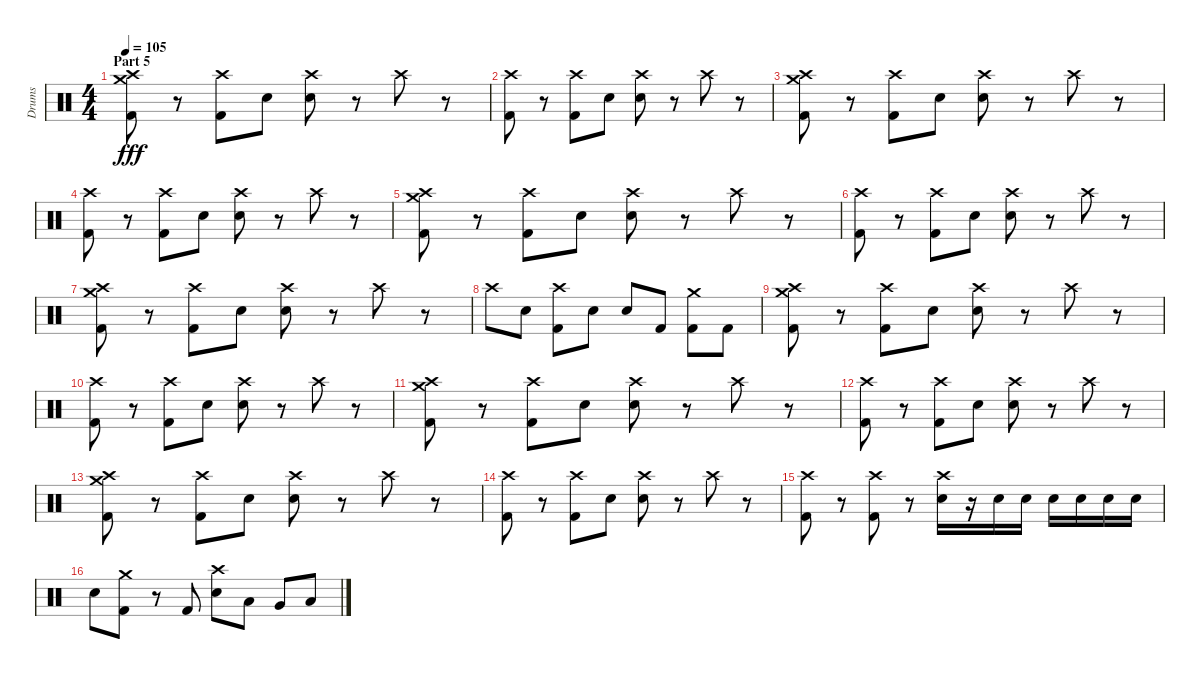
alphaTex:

\track ("Drums" "Drums") {instrument percussion}
\staff {score}
\articulation defaults
\ts (4 4)
\section ("" "Part 5")
\tempo 105
\clef neutral
\ks c
("Crash medium (hit)" "Crash high (hit)" "Kick (hit) 2").8{dy fff} r.8 ("Crash high (hit)" "Kick (hit) 2").8 "Electric Snare (hit)".8 ("Crash high (hit)" "Electric Snare (hit)").8 r.8 "Crash high (hit)".8 r.8 |
("Crash high (hit)" "Kick (hit) 2").8 r.8 ("Crash high (hit)" "Kick (hit) 2").8 "Electric Snare (hit)".8 ("Crash high (hit)" "Electric Snare (hit)").8 r.8 "Crash high (hit)".8 r.8 |
("Crash medium (hit)" "Crash high (hit)" "Kick (hit) 2").8 r.8 ("Crash high (hit)" "Kick (hit) 2").8 "Electric Snare (hit)".8 ("Crash high (hit)" "Electric Snare (hit)").8 r.8 "Crash high (hit)".8 r.8 |
("Crash high (hit)" "Kick (hit) 2").8 r.8 ("Crash high (hit)" "Kick (hit) 2").8 "Electric Snare (hit)".8 ("Crash high (hit)" "Electric Snare (hit)").8 r.8 "Crash high (hit)".8 r.8 |
("Crash medium (hit)" "Crash high (hit)" "Kick (hit) 2").8 r.8 ("Crash high (hit)" "Kick (hit) 2").8 "Electric Snare (hit)".8 ("Crash high (hit)" "Electric Snare (hit)").8 r.8 "Crash high (hit)".8 r.8 |
("Crash high (hit)" "Kick (hit) 2").8 r.8 ("Crash high (hit)" "Kick (hit) 2").8 "Electric Snare (hit)".8 ("Crash high (hit)" "Electric Snare (hit)").8 r.8 "Crash high (hit)".8 r.8 |
("Crash medium (hit)" "Crash high (hit)" "Kick (hit) 2").8 r.8 ("Crash high (hit)" "Kick (hit) 2").8 "Electric Snare (hit)".8 ("Crash high (hit)" "Electric Snare (hit)").8 r.8 "Crash high (hit)".8 r.8 |
"Crash high (hit)".8 "Electric Snare (hit)".8 ("Crash high (hit)" "Kick (hit) 2").8 "Electric Snare (hit)".8 "Electric Snare (hit)".8 "Kick (hit) 2".8 ("Crash medium (hit)" "Kick (hit) 2").8 "Kick (hit) 2".8 |
("Crash medium (hit)" "Crash high (hit)" "Kick (hit) 2").8 r.8 ("Crash high (hit)" "Kick (hit) 2").8 "Electric Snare (hit)".8 ("Crash high (hit)" "Electric Snare (hit)").8 r.8 "Crash high (hit)".8 r.8 |
("Crash high (hit)" "Kick (hit) 2").8 r.8 ("Crash high (hit)" "Kick (hit) 2").8 "Electric Snare (hit)".8 ("Crash high (hit)" "Electric Snare (hit)").8 r.8 "Crash high (hit)".8 r.8 |
("Crash medium (hit)" "Crash high (hit)" "Kick (hit) 2").8 r.8 ("Crash high (hit)" "Kick (hit) 2").8 "Electric Snare (hit)".8 ("Crash high (hit)" "Electric Snare (hit)").8 r.8 "Crash high (hit)".8 r.8 |
("Crash high (hit)" "Kick (hit) 2").8 r.8 ("Crash high (hit)" "Kick (hit) 2").8 "Electric Snare (hit)".8 ("Crash high (hit)" "Electric Snare (hit)").8 r.8 "Crash high (hit)".8 r.8 |
("Crash medium (hit)" "Crash high (hit)" "Kick (hit) 2").8 r.8 ("Crash high (hit)" "Kick (hit) 2").8 "Electric Snare (hit)".8 ("Crash high (hit)" "Electric Snare (hit)").8 r.8 "Crash high (hit)".8 r.8 |
("Crash high (hit)" "Kick (hit) 2").8 r.8 ("Crash high (hit)" "Kick (hit) 2").8 "Electric Snare (hit)".8 ("Crash high (hit)" "Electric Snare (hit)").8 r.8 "Crash high (hit)".8 r.8 |
("Crash high (hit)" "Kick (hit) 2").8 r.8 ("Crash high (hit)" "Kick (hit) 2").8 r.8 ("Crash high (hit)" "Electric Snare (hit)").16 r.16 "Electric Snare (hit)".16 "Electric Snare (hit)".16 "Electric Snare (hit)".16 "Electric Snare (hit)".16 "Electric Snare (hit)".16 "Electric Snare (hit)".16 |
"Electric Snare (hit)".8 ("Crash medium (hit)" "Kick (hit) 2").8 r.8 "Kick (hit) 2".8 ("Crash high (hit)" "Electric Snare (hit)").8 "Low Tom (hit)".8 "Very Low Tom (hit)".8 "Low Floor Tom (hit)".8
